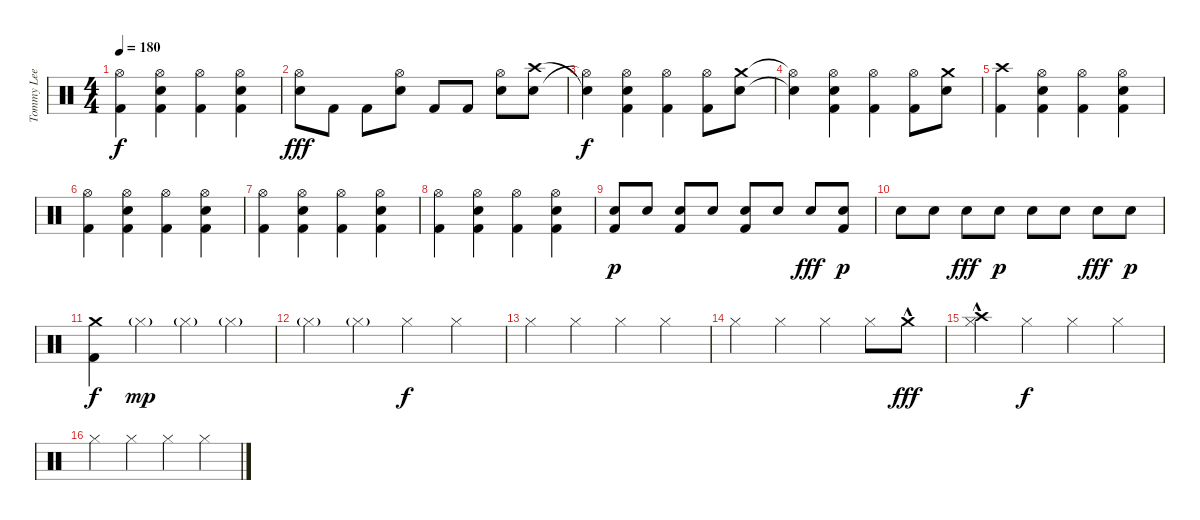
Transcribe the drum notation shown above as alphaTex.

\track ("Tommy Lee" "Tommy Lee") {instrument percussion}
\staff {score}
\articulation defaults
\ts (4 4)
\tempo 180
\clef neutral
\ks c
("Hi-Hat (open)" "Kick (hit) 2").4{dy f} ("Hi-Hat (open)" "Electric Snare (hit)" "Kick (hit) 2").4 ("Hi-Hat (open)" "Kick (hit) 2").4 ("Hi-Hat (open)" "Electric Snare (hit)" "Kick (hit) 2").4 |
("Hi-Hat (open)" "Electric Snare (hit)").8{dy fff} "Kick (hit) 2".8 "Kick (hit) 2".8 ("Hi-Hat (open)" "Electric Snare (hit)").8 "Kick (hit) 2".8 "Kick (hit) 2".8 ("Hi-Hat (open)" "Electric Snare (hit)").8 ("Crash high (hit)" "Electric Snare (hit)").8 |
("Snare (hit)"{t} "Hi-Hat (open)"{t}).4{dy f} ("Hi-Hat (open)" "Electric Snare (hit)" "Kick (hit) 2").4 ("Hi-Hat (open)" "Kick (hit) 2").4 ("Hi-Hat (open)" "Kick (hit) 2").8 ("Crash medium (hit)" "Electric Snare (hit)").8 |
("Hi-Hat (open)"{t} "Snare (hit)"{t}).4 ("Hi-Hat (open)" "Electric Snare (hit)" "Kick (hit) 2").4 ("Hi-Hat (open)" "Kick (hit) 2").4 ("Hi-Hat (open)" "Kick (hit) 2").8 ("Crash medium (hit)" "Electric Snare (hit)").8 |
("Crash high (hit)" "Kick (hit) 2").4 ("Hi-Hat (open)" "Electric Snare (hit)" "Kick (hit) 2").4 ("Hi-Hat (open)" "Kick (hit) 2").4 ("Hi-Hat (open)" "Electric Snare (hit)" "Kick (hit) 2").4 |
("Hi-Hat (open)" "Kick (hit) 2").4 ("Hi-Hat (open)" "Electric Snare (hit)" "Kick (hit) 2").4 ("Hi-Hat (open)" "Kick (hit) 2").4 ("Hi-Hat (open)" "Electric Snare (hit)" "Kick (hit) 2").4 |
("Hi-Hat (open)" "Kick (hit) 2").4 ("Hi-Hat (open)" "Electric Snare (hit)" "Kick (hit) 2").4 ("Hi-Hat (open)" "Kick (hit) 2").4 ("Hi-Hat (open)" "Electric Snare (hit)" "Kick (hit) 2").4 |
("Hi-Hat (open)" "Kick (hit) 2").4 ("Hi-Hat (open)" "Electric Snare (hit)" "Kick (hit) 2").4 ("Hi-Hat (open)" "Kick (hit) 2").4 ("Hi-Hat (open)" "Electric Snare (hit)" "Kick (hit) 2").4 |
("Electric Snare (hit)" "Kick (hit) 2").8{dy p} "Electric Snare (hit)".8 ("Electric Snare (hit)" "Kick (hit) 2").8 "Electric Snare (hit)".8 ("Electric Snare (hit)" "Kick (hit) 2").8 "Electric Snare (hit)".8 "Electric Snare (hit)".8{dy fff} ("Electric Snare (hit)" "Kick (hit) 2").8{dy p} |
"Electric Snare (hit)".8 "Electric Snare (hit)".8 "Electric Snare (hit)".8{dy fff} "Electric Snare (hit)".8{dy p} "Electric Snare (hit)".8 "Electric Snare (hit)".8 "Electric Snare (hit)".8{dy fff} "Electric Snare (hit)".8{dy p} |
("Crash medium (hit)" "Kick (hit) 2").4{dy f} "Hi-Hat (closed)"{g}.4{dy mp} "Hi-Hat (closed)"{g}.4 "Hi-Hat (closed)"{g}.4 |
"Hi-Hat (closed)"{g}.4 "Hi-Hat (closed)"{g}.4 "Hi-Hat (closed)".4{dy f} "Hi-Hat (closed)".4 |
"Hi-Hat (closed)".4 "Hi-Hat (closed)".4 "Hi-Hat (closed)".4 "Hi-Hat (closed)".4 |
"Hi-Hat (closed)".4 "Hi-Hat (closed)".4 "Hi-Hat (closed)".4 "Hi-Hat (closed)".8 "Crash medium (hit)"{hac}.8{dy fff} |
("Crash high (hit)"{hac} "Hi-Hat (closed)").4 "Hi-Hat (closed)".4{dy f} "Hi-Hat (closed)".4 "Hi-Hat (closed)".4 |
"Hi-Hat (closed)".4 "Hi-Hat (closed)".4 "Hi-Hat (closed)".4 "Hi-Hat (closed)".4
